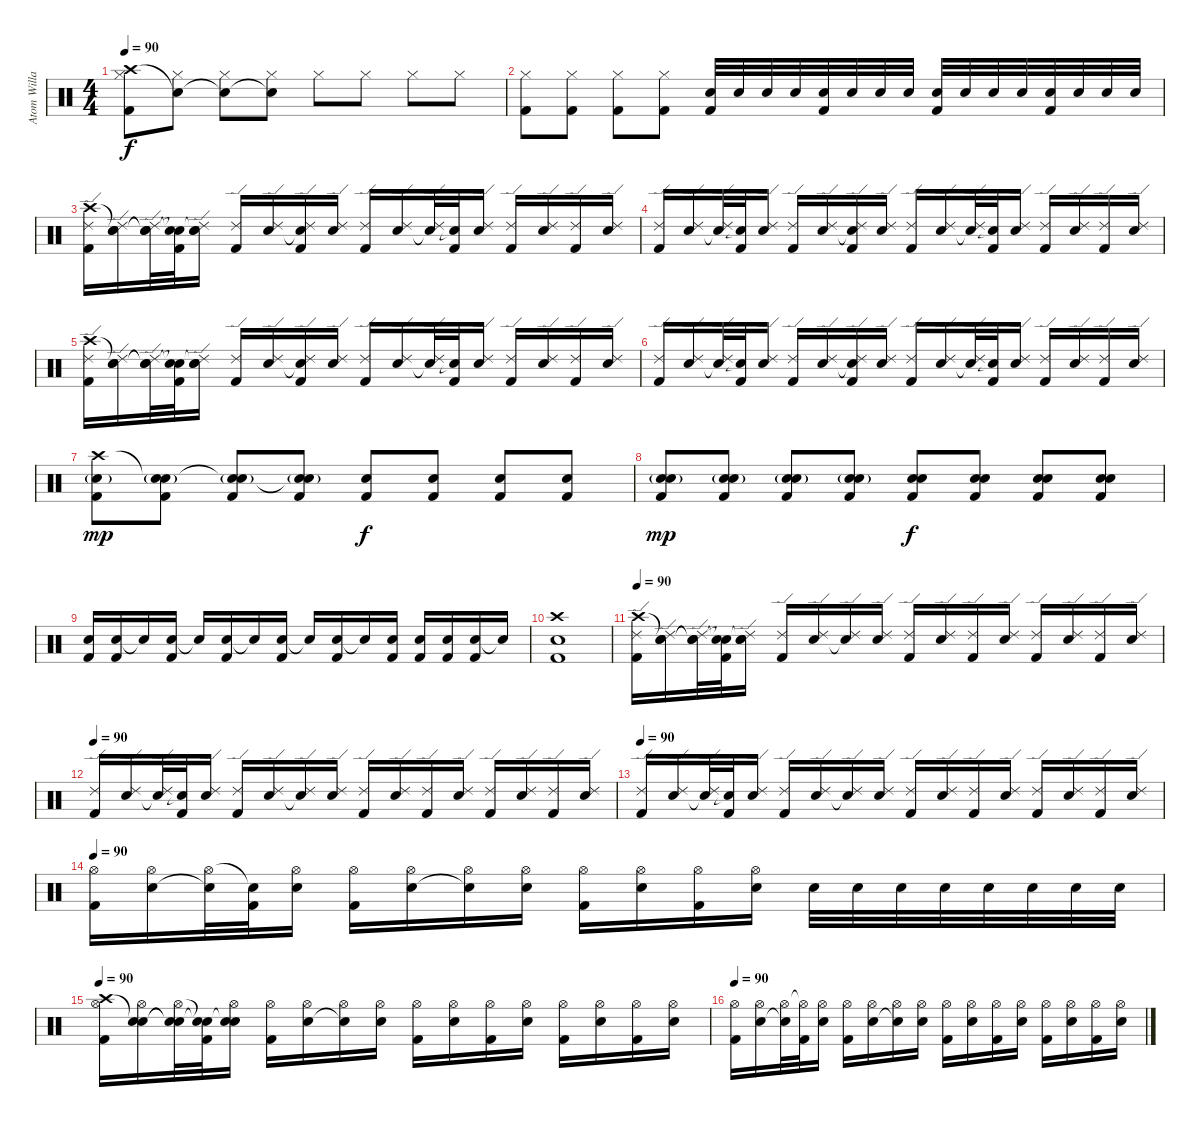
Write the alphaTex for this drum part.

\track ("Atom Willard (Drums)" "Atom Willa") {instrument percussion}
\staff {score}
\articulation defaults
\ts (4 4)
\tempo 90
\clef neutral
\ks c
("Crash high (hit)" "Hi-Hat (closed)" "Kick (hit) 2").8{dy f} ("Snare (hit)"{t} "Hi-Hat (closed)").8 ("Snare (hit)"{t} "Hi-Hat (closed)").8 ("Snare (hit)"{t} "Hi-Hat (closed)").8 "Hi-Hat (closed)".8 "Hi-Hat (closed)".8 "Hi-Hat (closed)".8 "Hi-Hat (closed)".8 |
("Hi-Hat (closed)" "Kick (hit) 2").8 ("Hi-Hat (closed)" "Kick (hit) 2").8 ("Hi-Hat (closed)" "Kick (hit) 2").8 ("Hi-Hat (closed)" "Kick (hit) 2").8 ("Electric Snare (hit)" "Kick (hit) 2").32 "Electric Snare (hit)".32 "Electric Snare (hit)".32 "Electric Snare (hit)".32 ("Electric Snare (hit)" "Kick (hit) 2").32 "Electric Snare (hit)".32 "Electric Snare (hit)".32 "Electric Snare (hit)".32 ("Electric Snare (hit)" "Kick (hit) 2").32 "Electric Snare (hit)".32 "Electric Snare (hit)".32 "Electric Snare (hit)".32 ("Electric Snare (hit)" "Kick (hit) 2").32 "Electric Snare (hit)".32 "Electric Snare (hit)".32 "Electric Snare (hit)".32 |
("Crash high (hit)" "Ride (edge) 2" "Kick (hit) 2").16 ("Snare (hit)"{t} "Ride (edge) 2" "Electric Snare (hit)").16 ("Snare (hit)"{t} "Ride (edge) 2" "Snare (hit)"{t}).32 ("Snare (hit)"{t} "Snare (hit)"{t} "Kick (hit) 2").32 ("Snare (hit)"{t} "Ride (edge) 2" "Electric Snare (hit)").16 ("Ride (edge) 2" "Kick (hit) 2").16 ("Ride (edge) 2" "Electric Snare (hit)").16 ("Ride (edge) 2" "Electric Snare (hit)"{t} "Kick (hit) 2").16 ("Ride (edge) 2" "Electric Snare (hit)").16 ("Ride (edge) 2" "Kick (hit) 2").16 ("Ride (edge) 2" "Electric Snare (hit)").16 ("Ride (edge) 2" "Snare (hit)"{t}).32 ("Snare (hit)"{t} "Kick (hit) 2").32 ("Ride (edge) 2" "Electric Snare (hit)").16 ("Ride (edge) 2" "Kick (hit) 2").16 ("Ride (edge) 2" "Electric Snare (hit)").16 ("Ride (edge) 2" "Kick (hit) 2").16 ("Ride (edge) 2" "Electric Snare (hit)").16 |
("Ride (edge) 2" "Kick (hit) 2").16 ("Ride (edge) 2" "Electric Snare (hit)").16 ("Ride (edge) 2" "Snare (hit)"{t}).32 ("Snare (hit)"{t} "Kick (hit) 2").32 ("Ride (edge) 2" "Electric Snare (hit)").16 ("Ride (edge) 2" "Kick (hit) 2").16 ("Ride (edge) 2" "Electric Snare (hit)").16 ("Ride (edge) 2" "Electric Snare (hit)"{t} "Kick (hit) 2").16 ("Ride (edge) 2" "Electric Snare (hit)").16 ("Ride (edge) 2" "Kick (hit) 2").16 ("Ride (edge) 2" "Electric Snare (hit)").16 ("Ride (edge) 2" "Snare (hit)"{t}).32 ("Snare (hit)"{t} "Kick (hit) 2").32 ("Ride (edge) 2" "Electric Snare (hit)").16 ("Ride (edge) 2" "Kick (hit) 2").16 ("Ride (edge) 2" "Electric Snare (hit)").16 ("Ride (edge) 2" "Kick (hit) 2").16 ("Ride (edge) 2" "Electric Snare (hit)").16 |
("Crash high (hit)" "Ride (edge) 2" "Kick (hit) 2").16 ("Snare (hit)"{t} "Ride (edge) 2" "Electric Snare (hit)").16 ("Snare (hit)"{t} "Ride (edge) 2" "Snare (hit)"{t}).32 ("Snare (hit)"{t} "Snare (hit)"{t} "Kick (hit) 2").32 ("Snare (hit)"{t} "Ride (edge) 2" "Electric Snare (hit)").16 ("Ride (edge) 2" "Kick (hit) 2").16 ("Ride (edge) 2" "Electric Snare (hit)").16 ("Ride (edge) 2" "Electric Snare (hit)"{t} "Kick (hit) 2").16 ("Ride (edge) 2" "Electric Snare (hit)").16 ("Ride (edge) 2" "Kick (hit) 2").16 ("Ride (edge) 2" "Electric Snare (hit)").16 ("Ride (edge) 2" "Snare (hit)"{t}).32 ("Snare (hit)"{t} "Kick (hit) 2").32 ("Ride (edge) 2" "Electric Snare (hit)").16 ("Ride (edge) 2" "Kick (hit) 2").16 ("Ride (edge) 2" "Electric Snare (hit)").16 ("Ride (edge) 2" "Kick (hit) 2").16 ("Ride (edge) 2" "Electric Snare (hit)").16 |
("Ride (edge) 2" "Kick (hit) 2").16 ("Ride (edge) 2" "Electric Snare (hit)").16 ("Ride (edge) 2" "Snare (hit)"{t}).32 ("Snare (hit)"{t} "Kick (hit) 2").32 ("Ride (edge) 2" "Electric Snare (hit)").16 ("Ride (edge) 2" "Kick (hit) 2").16 ("Ride (edge) 2" "Electric Snare (hit)").16 ("Ride (edge) 2" "Electric Snare (hit)"{t} "Kick (hit) 2").16 ("Ride (edge) 2" "Electric Snare (hit)").16 ("Ride (edge) 2" "Kick (hit) 2").16 ("Ride (edge) 2" "Electric Snare (hit)").16 ("Ride (edge) 2" "Snare (hit)"{t}).32 ("Snare (hit)"{t} "Kick (hit) 2").32 ("Ride (edge) 2" "Electric Snare (hit)").16 ("Ride (edge) 2" "Kick (hit) 2").16 ("Ride (edge) 2" "Electric Snare (hit)").16 ("Ride (edge) 2" "Kick (hit) 2").16 ("Ride (edge) 2" "Electric Snare (hit)").16 |
("Crash high (hit)" "Electric Snare (hit)"{g} "Kick (hit) 2").8{dy mp} ("Snare (hit)"{t} "Electric Snare (hit)"{g} "Kick (hit) 2").8 ("Snare (hit)"{t} "Electric Snare (hit)"{g} "Kick (hit) 2").8 ("Snare (hit)"{t} "Electric Snare (hit)"{g} "Kick (hit) 2").8 ("Electric Snare (hit)" "Kick (hit) 2").8{dy f} ("Electric Snare (hit)" "Kick (hit) 2").8 ("Electric Snare (hit)" "Kick (hit) 2").8 ("Electric Snare (hit)" "Kick (hit) 2").8 |
("Electric Snare (hit)"{g} "Electric Snare (hit)" "Kick (hit) 2").8{dy mp} ("Electric Snare (hit)"{g} "Electric Snare (hit)" "Kick (hit) 2").8 ("Electric Snare (hit)"{g} "Electric Snare (hit)" "Kick (hit) 2").8 ("Electric Snare (hit)"{g} "Electric Snare (hit)" "Kick (hit) 2").8 ("Electric Snare (hit)" "Electric Snare (hit)" "Kick (hit) 2").8{dy f} ("Electric Snare (hit)" "Electric Snare (hit)" "Kick (hit) 2").8 ("Electric Snare (hit)" "Electric Snare (hit)" "Kick (hit) 2").8 ("Electric Snare (hit)" "Electric Snare (hit)" "Kick (hit) 2").8 |
("Electric Snare (hit)" "Kick (hit) 2").16 ("Electric Snare (hit)" "Kick (hit) 2").16 "Snare (hit)"{t}.16 ("Electric Snare (hit)" "Kick (hit) 2").16 "Snare (hit)"{t}.16 ("Electric Snare (hit)" "Kick (hit) 2").16 "Snare (hit)"{t}.16 ("Electric Snare (hit)" "Kick (hit) 2").16 "Snare (hit)"{t}.16 ("Electric Snare (hit)" "Kick (hit) 2").16 "Snare (hit)"{t}.16 ("Electric Snare (hit)" "Kick (hit) 2").16 ("Electric Snare (hit)" "Kick (hit) 2").16 ("Electric Snare (hit)" "Kick (hit) 2").16 ("Electric Snare (hit)" "Kick (hit) 2").16 "Snare (hit)"{t}.16 |
("Crash high (hit)" "Electric Snare (hit)" "Kick (hit) 2").1 |
\tempo 90
("Crash high (hit)" "Ride (edge) 2" "Kick (hit) 2").16 ("Snare (hit)"{t} "Ride (edge) 2" "Electric Snare (hit)").16 ("Snare (hit)"{t} "Ride (edge) 2" "Snare (hit)"{t}).32 ("Snare (hit)"{t} "Snare (hit)"{t} "Kick (hit) 2").32 ("Snare (hit)"{t} "Ride (edge) 2" "Electric Snare (hit)").16 ("Ride (edge) 2" "Kick (hit) 2").16 ("Ride (edge) 2" "Electric Snare (hit)").16 ("Ride (edge) 2" "Snare (hit)"{t}).16 ("Ride (edge) 2" "Electric Snare (hit)").16 ("Ride (edge) 2" "Kick (hit) 2").16 ("Ride (edge) 2" "Electric Snare (hit)").16 ("Ride (edge) 2" "Kick (hit) 2").16 ("Ride (edge) 2" "Electric Snare (hit)").16 ("Ride (edge) 2" "Kick (hit) 2").16 ("Ride (edge) 2" "Electric Snare (hit)").16 ("Ride (edge) 2" "Kick (hit) 2").16 ("Ride (edge) 2" "Electric Snare (hit)").16 |
\tempo 90
("Ride (edge) 2" "Kick (hit) 2").16 ("Ride (edge) 2" "Electric Snare (hit)").16 ("Ride (edge) 2" "Snare (hit)"{t}).32 ("Snare (hit)"{t} "Kick (hit) 2").32 ("Ride (edge) 2" "Electric Snare (hit)").16 ("Ride (edge) 2" "Kick (hit) 2").16 ("Ride (edge) 2" "Electric Snare (hit)").16 ("Ride (edge) 2" "Snare (hit)"{t}).16 ("Ride (edge) 2" "Electric Snare (hit)").16 ("Ride (edge) 2" "Kick (hit) 2").16 ("Ride (edge) 2" "Electric Snare (hit)").16 ("Ride (edge) 2" "Kick (hit) 2").16 ("Ride (edge) 2" "Electric Snare (hit)").16 ("Ride (edge) 2" "Kick (hit) 2").16 ("Ride (edge) 2" "Electric Snare (hit)").16 ("Ride (edge) 2" "Kick (hit) 2").16 ("Ride (edge) 2" "Electric Snare (hit)").16 |
\tempo 90
("Ride (edge) 2" "Kick (hit) 2").16 ("Ride (edge) 2" "Electric Snare (hit)").16 ("Ride (edge) 2" "Snare (hit)"{t}).32 ("Snare (hit)"{t} "Kick (hit) 2").32 ("Ride (edge) 2" "Electric Snare (hit)").16 ("Ride (edge) 2" "Kick (hit) 2").16 ("Ride (edge) 2" "Electric Snare (hit)").16 ("Ride (edge) 2" "Snare (hit)"{t}).16 ("Ride (edge) 2" "Electric Snare (hit)").16 ("Ride (edge) 2" "Kick (hit) 2").16 ("Ride (edge) 2" "Electric Snare (hit)").16 ("Ride (edge) 2" "Kick (hit) 2").16 ("Ride (edge) 2" "Electric Snare (hit)").16 ("Ride (edge) 2" "Kick (hit) 2").16 ("Ride (edge) 2" "Electric Snare (hit)").16 ("Ride (edge) 2" "Kick (hit) 2").16 ("Ride (edge) 2" "Electric Snare (hit)").16 |
\tempo 90
("Hi-Hat (open)" "Kick (hit) 2").16 ("Hi-Hat (open)" "Electric Snare (hit)").16 ("Hi-Hat (open)" "Snare (hit)"{t}).32 ("Snare (hit)"{t} "Kick (hit) 2").32 ("Hi-Hat (open)" "Electric Snare (hit)").16 ("Hi-Hat (open)" "Kick (hit) 2").16 ("Hi-Hat (open)" "Electric Snare (hit)").16 ("Hi-Hat (open)" "Snare (hit)"{t}).16 ("Hi-Hat (open)" "Electric Snare (hit)").16 ("Hi-Hat (open)" "Kick (hit) 2").16 ("Hi-Hat (open)" "Electric Snare (hit)").16 ("Hi-Hat (open)" "Kick (hit) 2").16 ("Hi-Hat (open)" "Electric Snare (hit)").16 "Electric Snare (hit)".32 "Electric Snare (hit)".32 "Electric Snare (hit)".32 "Electric Snare (hit)".32 "Electric Snare (hit)".32 "Electric Snare (hit)".32 "Electric Snare (hit)".32 "Electric Snare (hit)".32 |
\tempo 90
("Crash high (hit)" "Hi-Hat (open)" "Kick (hit) 2").16 ("Snare (hit)"{t} "Hi-Hat (open)" "Electric Snare (hit)").16 ("Snare (hit)"{t} "Hi-Hat (open)" "Snare (hit)"{t}).32 ("Snare (hit)"{t} "Snare (hit)"{t} "Kick (hit) 2").32 ("Snare (hit)"{t} "Hi-Hat (open)" "Electric Snare (hit)").16 ("Hi-Hat (open)" "Kick (hit) 2").16 ("Hi-Hat (open)" "Electric Snare (hit)").16 ("Hi-Hat (open)" "Snare (hit)"{t}).16 ("Hi-Hat (open)" "Electric Snare (hit)").16 ("Hi-Hat (open)" "Kick (hit) 2").16 ("Hi-Hat (open)" "Electric Snare (hit)").16 ("Hi-Hat (open)" "Kick (hit) 2").16 ("Hi-Hat (open)" "Electric Snare (hit)").16 ("Hi-Hat (open)" "Kick (hit) 2").16 ("Hi-Hat (open)" "Electric Snare (hit)").16 ("Hi-Hat (open)" "Kick (hit) 2").16 ("Hi-Hat (open)" "Electric Snare (hit)").16 |
\tempo 90
("Hi-Hat (open)" "Kick (hit) 2").16 ("Hi-Hat (open)" "Electric Snare (hit)").16 ("Hi-Hat (open)" "Snare (hit)"{t}).32 ("Hi-Hat (open)"{t} "Kick (hit) 2").32 ("Hi-Hat (open)" "Electric Snare (hit)").16 ("Hi-Hat (open)" "Kick (hit) 2").16 ("Hi-Hat (open)" "Electric Snare (hit)").16 ("Hi-Hat (open)" "Snare (hit)"{t}).16 ("Hi-Hat (open)" "Electric Snare (hit)").16 ("Hi-Hat (open)" "Kick (hit) 2").16 ("Hi-Hat (open)" "Electric Snare (hit)").16 ("Hi-Hat (open)" "Kick (hit) 2").16 ("Hi-Hat (open)" "Electric Snare (hit)").16 ("Hi-Hat (open)" "Kick (hit) 2").16 ("Hi-Hat (open)" "Electric Snare (hit)").16 ("Hi-Hat (open)" "Kick (hit) 2").16 ("Hi-Hat (open)" "Electric Snare (hit)").16
